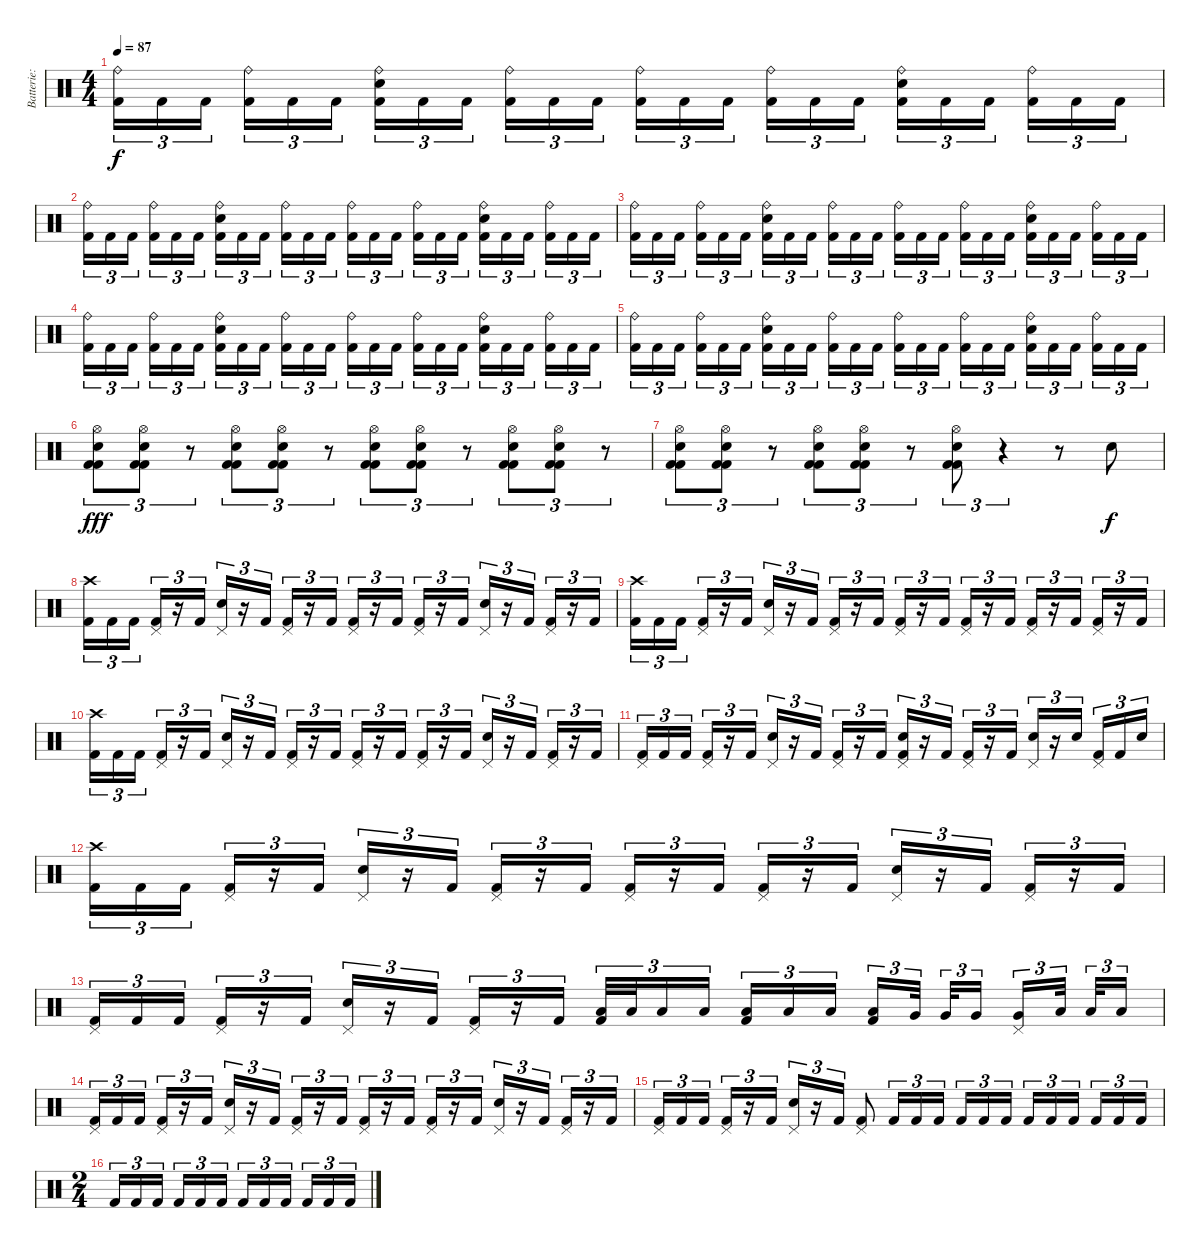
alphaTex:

\track ("Batterie: Paul" "Batterie: ") {instrument percussion}
\staff {score}
\articulation defaults
\ts (4 4)
\tempo 87
\clef neutral
\ks c
("Ride (bell)" "Kick (hit) 2").16{tu (3 2) dy f} "Kick (hit) 2".16{tu (3 2)} "Kick (hit) 2".16{tu (3 2)} ("Ride (bell)" "Kick (hit) 2").16{tu (3 2)} "Kick (hit) 2".16{tu (3 2)} "Kick (hit) 2".16{tu (3 2)} ("Ride (bell)" "Snare (hit) 2" "Kick (hit) 2").16{tu (3 2)} "Kick (hit) 2".16{tu (3 2)} "Kick (hit) 2".16{tu (3 2)} ("Ride (bell)" "Kick (hit) 2").16{tu (3 2)} "Kick (hit) 2".16{tu (3 2)} "Kick (hit) 2".16{tu (3 2)} ("Ride (bell)" "Kick (hit) 2").16{tu (3 2)} "Kick (hit) 2".16{tu (3 2)} "Kick (hit) 2".16{tu (3 2)} ("Ride (bell)" "Kick (hit) 2").16{tu (3 2)} "Kick (hit) 2".16{tu (3 2)} "Kick (hit) 2".16{tu (3 2)} ("Ride (bell)" "Snare (hit) 2" "Kick (hit) 2").16{tu (3 2)} "Kick (hit) 2".16{tu (3 2)} "Kick (hit) 2".16{tu (3 2)} ("Ride (bell)" "Kick (hit) 2").16{tu (3 2)} "Kick (hit) 2".16{tu (3 2)} "Kick (hit) 2".16{tu (3 2)} |
("Ride (bell)" "Kick (hit) 2").16{tu (3 2)} "Kick (hit) 2".16{tu (3 2)} "Kick (hit) 2".16{tu (3 2)} ("Ride (bell)" "Kick (hit) 2").16{tu (3 2)} "Kick (hit) 2".16{tu (3 2)} "Kick (hit) 2".16{tu (3 2)} ("Ride (bell)" "Snare (hit) 2" "Kick (hit) 2").16{tu (3 2)} "Kick (hit) 2".16{tu (3 2)} "Kick (hit) 2".16{tu (3 2)} ("Ride (bell)" "Kick (hit) 2").16{tu (3 2)} "Kick (hit) 2".16{tu (3 2)} "Kick (hit) 2".16{tu (3 2)} ("Ride (bell)" "Kick (hit) 2").16{tu (3 2)} "Kick (hit) 2".16{tu (3 2)} "Kick (hit) 2".16{tu (3 2)} ("Ride (bell)" "Kick (hit) 2").16{tu (3 2)} "Kick (hit) 2".16{tu (3 2)} "Kick (hit) 2".16{tu (3 2)} ("Ride (bell)" "Snare (hit) 2" "Kick (hit) 2").16{tu (3 2)} "Kick (hit) 2".16{tu (3 2)} "Kick (hit) 2".16{tu (3 2)} ("Ride (bell)" "Kick (hit) 2").16{tu (3 2)} "Kick (hit) 2".16{tu (3 2)} "Kick (hit) 2".16{tu (3 2)} |
("Ride (bell)" "Kick (hit) 2").16{tu (3 2)} "Kick (hit) 2".16{tu (3 2)} "Kick (hit) 2".16{tu (3 2)} ("Ride (bell)" "Kick (hit) 2").16{tu (3 2)} "Kick (hit) 2".16{tu (3 2)} "Kick (hit) 2".16{tu (3 2)} ("Ride (bell)" "Snare (hit) 2" "Kick (hit) 2").16{tu (3 2)} "Kick (hit) 2".16{tu (3 2)} "Kick (hit) 2".16{tu (3 2)} ("Ride (bell)" "Kick (hit) 2").16{tu (3 2)} "Kick (hit) 2".16{tu (3 2)} "Kick (hit) 2".16{tu (3 2)} ("Ride (bell)" "Kick (hit) 2").16{tu (3 2)} "Kick (hit) 2".16{tu (3 2)} "Kick (hit) 2".16{tu (3 2)} ("Ride (bell)" "Kick (hit) 2").16{tu (3 2)} "Kick (hit) 2".16{tu (3 2)} "Kick (hit) 2".16{tu (3 2)} ("Ride (bell)" "Snare (hit) 2" "Kick (hit) 2").16{tu (3 2)} "Kick (hit) 2".16{tu (3 2)} "Kick (hit) 2".16{tu (3 2)} ("Ride (bell)" "Kick (hit) 2").16{tu (3 2)} "Kick (hit) 2".16{tu (3 2)} "Kick (hit) 2".16{tu (3 2)} |
("Ride (bell)" "Kick (hit) 2").16{tu (3 2)} "Kick (hit) 2".16{tu (3 2)} "Kick (hit) 2".16{tu (3 2)} ("Ride (bell)" "Kick (hit) 2").16{tu (3 2)} "Kick (hit) 2".16{tu (3 2)} "Kick (hit) 2".16{tu (3 2)} ("Ride (bell)" "Snare (hit) 2" "Kick (hit) 2").16{tu (3 2)} "Kick (hit) 2".16{tu (3 2)} "Kick (hit) 2".16{tu (3 2)} ("Ride (bell)" "Kick (hit) 2").16{tu (3 2)} "Kick (hit) 2".16{tu (3 2)} "Kick (hit) 2".16{tu (3 2)} ("Ride (bell)" "Kick (hit) 2").16{tu (3 2)} "Kick (hit) 2".16{tu (3 2)} "Kick (hit) 2".16{tu (3 2)} ("Ride (bell)" "Kick (hit) 2").16{tu (3 2)} "Kick (hit) 2".16{tu (3 2)} "Kick (hit) 2".16{tu (3 2)} ("Ride (bell)" "Snare (hit) 2" "Kick (hit) 2").16{tu (3 2)} "Kick (hit) 2".16{tu (3 2)} "Kick (hit) 2".16{tu (3 2)} ("Ride (bell)" "Kick (hit) 2").16{tu (3 2)} "Kick (hit) 2".16{tu (3 2)} "Kick (hit) 2".16{tu (3 2)} |
("Ride (bell)" "Kick (hit) 2").16{tu (3 2)} "Kick (hit) 2".16{tu (3 2)} "Kick (hit) 2".16{tu (3 2)} ("Ride (bell)" "Kick (hit) 2").16{tu (3 2)} "Kick (hit) 2".16{tu (3 2)} "Kick (hit) 2".16{tu (3 2)} ("Ride (bell)" "Snare (hit) 2" "Kick (hit) 2").16{tu (3 2)} "Kick (hit) 2".16{tu (3 2)} "Kick (hit) 2".16{tu (3 2)} ("Ride (bell)" "Kick (hit) 2").16{tu (3 2)} "Kick (hit) 2".16{tu (3 2)} "Kick (hit) 2".16{tu (3 2)} ("Ride (bell)" "Kick (hit) 2").16{tu (3 2)} "Kick (hit) 2".16{tu (3 2)} "Kick (hit) 2".16{tu (3 2)} ("Ride (bell)" "Kick (hit) 2").16{tu (3 2)} "Kick (hit) 2".16{tu (3 2)} "Kick (hit) 2".16{tu (3 2)} ("Ride (bell)" "Snare (hit) 2" "Kick (hit) 2").16{tu (3 2)} "Kick (hit) 2".16{tu (3 2)} "Kick (hit) 2".16{tu (3 2)} ("Ride (bell)" "Kick (hit) 2").16{tu (3 2)} "Kick (hit) 2".16{tu (3 2)} "Kick (hit) 2".16{tu (3 2)} |
("Hi-Hat (open)" "Snare (hit) 2" "Kick (hit) 2" "Kick (hit) 2").8{tu (3 2) dy fff} ("Hi-Hat (open)" "Snare (hit) 2" "Kick (hit) 2" "Kick (hit) 2").8{tu (3 2)} r.8{tu (3 2)} ("Hi-Hat (open)" "Snare (hit) 2" "Kick (hit) 2" "Kick (hit) 2").8{tu (3 2)} ("Hi-Hat (open)" "Snare (hit) 2" "Kick (hit) 2" "Kick (hit) 2").8{tu (3 2)} r.8{tu (3 2)} ("Hi-Hat (open)" "Snare (hit) 2" "Kick (hit) 2" "Kick (hit) 2").8{tu (3 2)} ("Hi-Hat (open)" "Snare (hit) 2" "Kick (hit) 2" "Kick (hit) 2").8{tu (3 2)} r.8{tu (3 2)} ("Hi-Hat (open)" "Snare (hit) 2" "Kick (hit) 2" "Kick (hit) 2").8{tu (3 2)} ("Hi-Hat (open)" "Snare (hit) 2" "Kick (hit) 2" "Kick (hit) 2").8{tu (3 2)} r.8{tu (3 2)} |
("Hi-Hat (open)" "Snare (hit) 2" "Kick (hit) 2" "Kick (hit) 2").8{tu (3 2)} ("Hi-Hat (open)" "Snare (hit) 2" "Kick (hit) 2" "Kick (hit) 2").8{tu (3 2)} r.8{tu (3 2)} ("Hi-Hat (open)" "Snare (hit) 2" "Kick (hit) 2" "Kick (hit) 2").8{tu (3 2)} ("Hi-Hat (open)" "Snare (hit) 2" "Kick (hit) 2" "Kick (hit) 2").8{tu (3 2)} r.8{tu (3 2)} ("Hi-Hat (open)" "Snare (hit) 2" "Kick (hit) 2" "Kick (hit) 2").8{tu (3 2)} r.4{tu (3 2)} r.8 "Snare (hit) 2".8{dy f} |
("Crash high (hit)" "Kick (hit) 2").16{tu (3 2)} "Kick (hit) 2".16{tu (3 2)} "Kick (hit) 2".16{tu (3 2)} ("Pedal Hi-Hat (hit)" "Kick (hit) 2").16{tu (3 2)} r.16{tu (3 2)} "Kick (hit) 2".16{tu (3 2)} ("Pedal Hi-Hat (hit)" "Snare (hit) 2").16{tu (3 2)} r.16{tu (3 2)} "Kick (hit) 2".16{tu (3 2)} ("Pedal Hi-Hat (hit)" "Kick (hit) 2").16{tu (3 2)} r.16{tu (3 2)} "Kick (hit) 2".16{tu (3 2)} ("Pedal Hi-Hat (hit)" "Kick (hit) 2").16{tu (3 2)} r.16{tu (3 2)} "Kick (hit) 2".16{tu (3 2)} ("Pedal Hi-Hat (hit)" "Kick (hit) 2").16{tu (3 2)} r.16{tu (3 2)} "Kick (hit) 2".16{tu (3 2)} ("Pedal Hi-Hat (hit)" "Snare (hit) 2").16{tu (3 2)} r.16{tu (3 2)} "Kick (hit) 2".16{tu (3 2)} ("Pedal Hi-Hat (hit)" "Kick (hit) 2").16{tu (3 2)} r.16{tu (3 2)} "Kick (hit) 2".16{tu (3 2)} |
("Crash high (hit)" "Kick (hit) 2").16{tu (3 2)} "Kick (hit) 2".16{tu (3 2)} "Kick (hit) 2".16{tu (3 2)} ("Pedal Hi-Hat (hit)" "Kick (hit) 2").16{tu (3 2)} r.16{tu (3 2)} "Kick (hit) 2".16{tu (3 2)} ("Pedal Hi-Hat (hit)" "Snare (hit) 2").16{tu (3 2)} r.16{tu (3 2)} "Kick (hit) 2".16{tu (3 2)} ("Pedal Hi-Hat (hit)" "Kick (hit) 2").16{tu (3 2)} r.16{tu (3 2)} "Kick (hit) 2".16{tu (3 2)} ("Pedal Hi-Hat (hit)" "Kick (hit) 2").16{tu (3 2)} r.16{tu (3 2)} "Kick (hit) 2".16{tu (3 2)} ("Pedal Hi-Hat (hit)" "Kick (hit) 2").16{tu (3 2)} r.16{tu (3 2)} "Kick (hit) 2".16{tu (3 2)} ("Pedal Hi-Hat (hit)" "Kick (hit) 2").16{tu (3 2)} r.16{tu (3 2)} "Kick (hit) 2".16{tu (3 2)} ("Pedal Hi-Hat (hit)" "Kick (hit) 2").16{tu (3 2)} r.16{tu (3 2)} "Kick (hit) 2".16{tu (3 2)} |
("Crash high (hit)" "Kick (hit) 2").16{tu (3 2)} "Kick (hit) 2".16{tu (3 2)} "Kick (hit) 2".16{tu (3 2)} ("Pedal Hi-Hat (hit)" "Kick (hit) 2").16{tu (3 2)} r.16{tu (3 2)} "Kick (hit) 2".16{tu (3 2)} ("Pedal Hi-Hat (hit)" "Snare (hit) 2").16{tu (3 2)} r.16{tu (3 2)} "Kick (hit) 2".16{tu (3 2)} ("Pedal Hi-Hat (hit)" "Kick (hit) 2").16{tu (3 2)} r.16{tu (3 2)} "Kick (hit) 2".16{tu (3 2)} ("Pedal Hi-Hat (hit)" "Kick (hit) 2").16{tu (3 2)} r.16{tu (3 2)} "Kick (hit) 2".16{tu (3 2)} ("Pedal Hi-Hat (hit)" "Kick (hit) 2").16{tu (3 2)} r.16{tu (3 2)} "Kick (hit) 2".16{tu (3 2)} ("Pedal Hi-Hat (hit)" "Snare (hit) 2").16{tu (3 2)} r.16{tu (3 2)} "Kick (hit) 2".16{tu (3 2)} ("Pedal Hi-Hat (hit)" "Kick (hit) 2").16{tu (3 2)} r.16{tu (3 2)} "Kick (hit) 2".16{tu (3 2)} |
("Pedal Hi-Hat (hit)" "Kick (hit) 2").16{tu (3 2)} "Kick (hit) 2".16{tu (3 2)} "Kick (hit) 2".16{tu (3 2)} ("Pedal Hi-Hat (hit)" "Kick (hit) 2").16{tu (3 2)} r.16{tu (3 2)} "Kick (hit) 2".16{tu (3 2)} ("Pedal Hi-Hat (hit)" "Snare (hit) 2").16{tu (3 2)} r.16{tu (3 2)} "Kick (hit) 2".16{tu (3 2)} ("Pedal Hi-Hat (hit)" "Kick (hit) 2").16{tu (3 2)} r.16{tu (3 2)} "Kick (hit) 2".16{tu (3 2)} ("Pedal Hi-Hat (hit)" "Snare (hit) 2" "Kick (hit) 2").16{tu (3 2)} r.16{tu (3 2)} "Kick (hit) 2".16{tu (3 2)} ("Pedal Hi-Hat (hit)" "Kick (hit) 2").16{tu (3 2)} r.16{tu (3 2)} "Kick (hit) 2".16{tu (3 2)} ("Pedal Hi-Hat (hit)" "Snare (hit) 2").16{tu (3 2)} r.16{tu (3 2)} "Snare (hit) 2".16{tu (3 2)} ("Pedal Hi-Hat (hit)" "Kick (hit) 2").16{tu (3 2)} "Kick (hit) 2".16{tu (3 2)} "Snare (hit) 2".16{tu (3 2)} |
("Crash high (hit)" "Kick (hit) 2").16{tu (3 2)} "Kick (hit) 2".16{tu (3 2)} "Kick (hit) 2".16{tu (3 2)} ("Pedal Hi-Hat (hit)" "Kick (hit) 2").16{tu (3 2)} r.16{tu (3 2)} "Kick (hit) 2".16{tu (3 2)} ("Pedal Hi-Hat (hit)" "Snare (hit) 2").16{tu (3 2)} r.16{tu (3 2)} "Kick (hit) 2".16{tu (3 2)} ("Pedal Hi-Hat (hit)" "Kick (hit) 2").16{tu (3 2)} r.16{tu (3 2)} "Kick (hit) 2".16{tu (3 2)} ("Pedal Hi-Hat (hit)" "Kick (hit) 2").16{tu (3 2)} r.16{tu (3 2)} "Kick (hit) 2".16{tu (3 2)} ("Pedal Hi-Hat (hit)" "Kick (hit) 2").16{tu (3 2)} r.16{tu (3 2)} "Kick (hit) 2".16{tu (3 2)} ("Pedal Hi-Hat (hit)" "Snare (hit) 2").16{tu (3 2)} r.16{tu (3 2)} "Kick (hit) 2".16{tu (3 2)} ("Pedal Hi-Hat (hit)" "Kick (hit) 2").16{tu (3 2)} r.16{tu (3 2)} "Kick (hit) 2".16{tu (3 2)} |
("Pedal Hi-Hat (hit)" "Kick (hit) 2").16{tu (3 2)} "Kick (hit) 2".16{tu (3 2)} "Kick (hit) 2".16{tu (3 2)} ("Pedal Hi-Hat (hit)" "Kick (hit) 2").16{tu (3 2)} r.16{tu (3 2)} "Kick (hit) 2".16{tu (3 2)} ("Pedal Hi-Hat (hit)" "Snare (hit) 2").16{tu (3 2)} r.16{tu (3 2)} "Kick (hit) 2".16{tu (3 2)} ("Pedal Hi-Hat (hit)" "Kick (hit) 2").16{tu (3 2)} r.16{tu (3 2)} "Kick (hit) 2".16{tu (3 2)} ("Low Tom (hit)" "Kick (hit) 2").32{tu (3 2)} "Low Tom (hit)".32{tu (3 2)} "Low Tom (hit)".16{tu (3 2)} "Low Tom (hit)".16{tu (3 2)} ("Low Tom (hit)" "Kick (hit) 2").16{tu (3 2)} "Low Tom (hit)".16{tu (3 2)} "Low Tom (hit)".16{tu (3 2)} ("Low Tom (hit)" "Kick (hit) 2").16{tu (3 2)} "Very Low Tom (hit)".32{tu (3 2)} "Very Low Tom (hit)".32{tu (3 2)} "Very Low Tom (hit)".16{tu (3 2)} ("Pedal Hi-Hat (hit)" "Very Low Tom (hit)").16{tu (3 2)} "Low Floor Tom (hit)".32{tu (3 2)} "Low Floor Tom (hit)".32{tu (3 2)} "Low Floor Tom (hit)".16{tu (3 2)} |
("Pedal Hi-Hat (hit)" "Kick (hit) 2").16{tu (3 2)} "Kick (hit) 2".16{tu (3 2)} "Kick (hit) 2".16{tu (3 2)} ("Pedal Hi-Hat (hit)" "Kick (hit) 2").16{tu (3 2)} r.16{tu (3 2)} "Kick (hit) 2".16{tu (3 2)} ("Pedal Hi-Hat (hit)" "Snare (hit) 2").16{tu (3 2)} r.16{tu (3 2)} "Kick (hit) 2".16{tu (3 2)} ("Pedal Hi-Hat (hit)" "Kick (hit) 2").16{tu (3 2)} r.16{tu (3 2)} "Kick (hit) 2".16{tu (3 2)} ("Pedal Hi-Hat (hit)" "Kick (hit) 2").16{tu (3 2)} r.16{tu (3 2)} "Kick (hit) 2".16{tu (3 2)} ("Pedal Hi-Hat (hit)" "Kick (hit) 2").16{tu (3 2)} r.16{tu (3 2)} "Kick (hit) 2".16{tu (3 2)} ("Pedal Hi-Hat (hit)" "Snare (hit) 2").16{tu (3 2)} r.16{tu (3 2)} "Kick (hit) 2".16{tu (3 2)} ("Pedal Hi-Hat (hit)" "Kick (hit) 2").16{tu (3 2)} r.16{tu (3 2)} "Kick (hit) 2".16{tu (3 2)} |
("Pedal Hi-Hat (hit)" "Kick (hit) 2").16{tu (3 2)} "Kick (hit) 2".16{tu (3 2)} "Kick (hit) 2".16{tu (3 2)} ("Pedal Hi-Hat (hit)" "Kick (hit) 2").16{tu (3 2)} r.16{tu (3 2)} "Kick (hit) 2".16{tu (3 2)} ("Pedal Hi-Hat (hit)" "Snare (hit) 2").16{tu (3 2)} r.16{tu (3 2)} "Kick (hit) 2".16{tu (3 2)} ("Pedal Hi-Hat (hit)" "Kick (hit) 2").8 "Kick (hit) 2".16{tu (3 2)} "Kick (hit) 2".16{tu (3 2)} "Kick (hit) 2".16{tu (3 2)} "Kick (hit) 2".16{tu (3 2)} "Kick (hit) 2".16{tu (3 2)} "Kick (hit) 2".16{tu (3 2)} "Kick (hit) 2".16{tu (3 2)} "Kick (hit) 2".16{tu (3 2)} "Kick (hit) 2".16{tu (3 2)} "Kick (hit) 2".16{tu (3 2)} "Kick (hit) 2".16{tu (3 2)} "Kick (hit) 2".16{tu (3 2)} |
\ts (2 4)
"Kick (hit) 2".16{tu (3 2)} "Kick (hit) 2".16{tu (3 2)} "Kick (hit) 2".16{tu (3 2)} "Kick (hit) 2".16{tu (3 2)} "Kick (hit) 2".16{tu (3 2)} "Kick (hit) 2".16{tu (3 2)} "Kick (hit) 2".16{tu (3 2)} "Kick (hit) 2".16{tu (3 2)} "Kick (hit) 2".16{tu (3 2)} "Kick (hit) 2".16{tu (3 2)} "Kick (hit) 2".16{tu (3 2)} "Kick (hit) 2".16{tu (3 2)}
